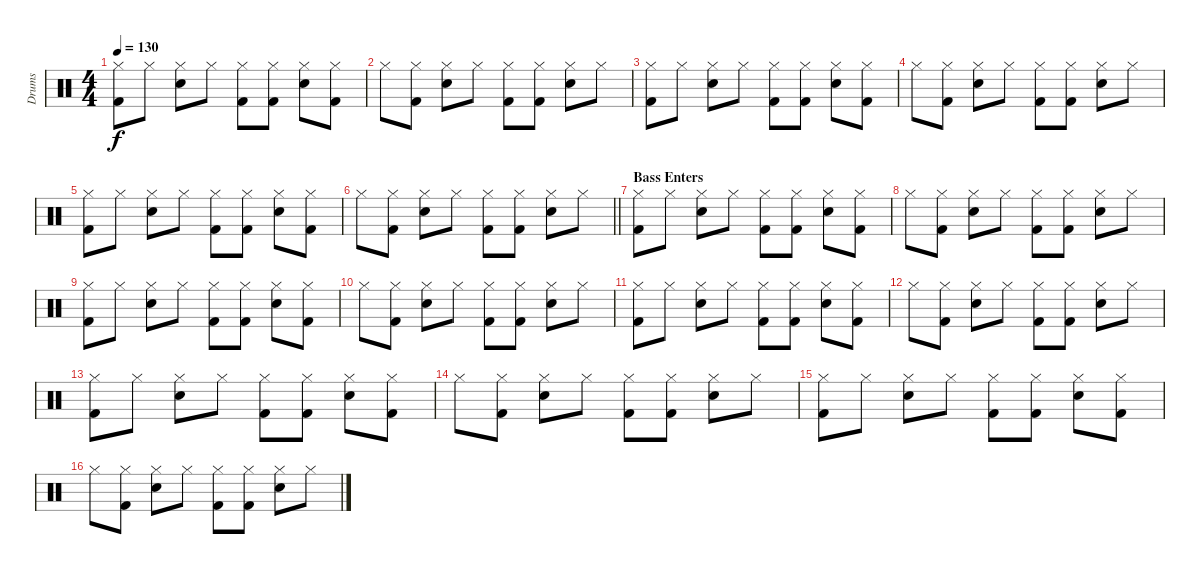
\track ("Drums" "Drums") {instrument percussion}
\staff {score}
\articulation defaults
\ts (4 4)
\tempo 130
\clef neutral
\ks c
("Hi-Hat (closed)" "Kick (hit) 2").8{dy f} "Hi-Hat (closed)".8 ("Hi-Hat (closed)" "Electric Snare (hit)").8 "Hi-Hat (closed)".8 ("Hi-Hat (closed)" "Kick (hit) 2").8 ("Hi-Hat (closed)" "Kick (hit) 2").8 ("Hi-Hat (closed)" "Electric Snare (hit)").8 ("Hi-Hat (closed)" "Kick (hit) 2").8 |
"Hi-Hat (closed)".8 ("Hi-Hat (closed)" "Kick (hit) 2").8 ("Hi-Hat (closed)" "Electric Snare (hit)").8 "Hi-Hat (closed)".8 ("Hi-Hat (closed)" "Kick (hit) 2").8 ("Hi-Hat (closed)" "Kick (hit) 2").8 ("Hi-Hat (closed)" "Electric Snare (hit)").8 "Hi-Hat (closed)".8 |
("Hi-Hat (closed)" "Kick (hit) 2").8 "Hi-Hat (closed)".8 ("Hi-Hat (closed)" "Electric Snare (hit)").8 "Hi-Hat (closed)".8 ("Hi-Hat (closed)" "Kick (hit) 2").8 ("Hi-Hat (closed)" "Kick (hit) 2").8 ("Hi-Hat (closed)" "Electric Snare (hit)").8 ("Hi-Hat (closed)" "Kick (hit) 2").8 |
"Hi-Hat (closed)".8 ("Hi-Hat (closed)" "Kick (hit) 2").8 ("Hi-Hat (closed)" "Electric Snare (hit)").8 "Hi-Hat (closed)".8 ("Hi-Hat (closed)" "Kick (hit) 2").8 ("Hi-Hat (closed)" "Kick (hit) 2").8 ("Hi-Hat (closed)" "Electric Snare (hit)").8 "Hi-Hat (closed)".8 |
("Hi-Hat (closed)" "Kick (hit) 2").8 "Hi-Hat (closed)".8 ("Hi-Hat (closed)" "Electric Snare (hit)").8 "Hi-Hat (closed)".8 ("Hi-Hat (closed)" "Kick (hit) 2").8 ("Hi-Hat (closed)" "Kick (hit) 2").8 ("Hi-Hat (closed)" "Electric Snare (hit)").8 ("Hi-Hat (closed)" "Kick (hit) 2").8 |
\barLineRight lightlight "Hi-Hat (closed)".8
("Hi-Hat (closed)" "Kick (hit) 2").8 ("Hi-Hat (closed)" "Electric Snare (hit)").8 "Hi-Hat (closed)".8 ("Hi-Hat (closed)" "Kick (hit) 2").8 ("Hi-Hat (closed)" "Kick (hit) 2").8 ("Hi-Hat (closed)" "Electric Snare (hit)").8 "Hi-Hat (closed)".8 |
\section ("" "Bass Enters")
("Hi-Hat (closed)" "Kick (hit) 2").8 "Hi-Hat (closed)".8 ("Hi-Hat (closed)" "Electric Snare (hit)").8 "Hi-Hat (closed)".8 ("Hi-Hat (closed)" "Kick (hit) 2").8 ("Hi-Hat (closed)" "Kick (hit) 2").8 ("Hi-Hat (closed)" "Electric Snare (hit)").8 ("Hi-Hat (closed)" "Kick (hit) 2").8 |
"Hi-Hat (closed)".8 ("Hi-Hat (closed)" "Kick (hit) 2").8 ("Hi-Hat (closed)" "Electric Snare (hit)").8 "Hi-Hat (closed)".8 ("Hi-Hat (closed)" "Kick (hit) 2").8 ("Hi-Hat (closed)" "Kick (hit) 2").8 ("Hi-Hat (closed)" "Electric Snare (hit)").8 "Hi-Hat (closed)".8 |
("Hi-Hat (closed)" "Kick (hit) 2").8 "Hi-Hat (closed)".8 ("Hi-Hat (closed)" "Electric Snare (hit)").8 "Hi-Hat (closed)".8 ("Hi-Hat (closed)" "Kick (hit) 2").8 ("Hi-Hat (closed)" "Kick (hit) 2").8 ("Hi-Hat (closed)" "Electric Snare (hit)").8 ("Hi-Hat (closed)" "Kick (hit) 2").8 |
"Hi-Hat (closed)".8 ("Hi-Hat (closed)" "Kick (hit) 2").8 ("Hi-Hat (closed)" "Electric Snare (hit)").8 "Hi-Hat (closed)".8 ("Hi-Hat (closed)" "Kick (hit) 2").8 ("Hi-Hat (closed)" "Kick (hit) 2").8 ("Hi-Hat (closed)" "Electric Snare (hit)").8 "Hi-Hat (closed)".8 |
("Hi-Hat (closed)" "Kick (hit) 2").8 "Hi-Hat (closed)".8 ("Hi-Hat (closed)" "Electric Snare (hit)").8 "Hi-Hat (closed)".8 ("Hi-Hat (closed)" "Kick (hit) 2").8 ("Hi-Hat (closed)" "Kick (hit) 2").8 ("Hi-Hat (closed)" "Electric Snare (hit)").8 ("Hi-Hat (closed)" "Kick (hit) 2").8 |
"Hi-Hat (closed)".8 ("Hi-Hat (closed)" "Kick (hit) 2").8 ("Hi-Hat (closed)" "Electric Snare (hit)").8 "Hi-Hat (closed)".8 ("Hi-Hat (closed)" "Kick (hit) 2").8 ("Hi-Hat (closed)" "Kick (hit) 2").8 ("Hi-Hat (closed)" "Electric Snare (hit)").8 "Hi-Hat (closed)".8 |
("Hi-Hat (closed)" "Kick (hit) 2").8 "Hi-Hat (closed)".8 ("Hi-Hat (closed)" "Electric Snare (hit)").8 "Hi-Hat (closed)".8 ("Hi-Hat (closed)" "Kick (hit) 2").8 ("Hi-Hat (closed)" "Kick (hit) 2").8 ("Hi-Hat (closed)" "Electric Snare (hit)").8 ("Hi-Hat (closed)" "Kick (hit) 2").8 |
"Hi-Hat (closed)".8 ("Hi-Hat (closed)" "Kick (hit) 2").8 ("Hi-Hat (closed)" "Electric Snare (hit)").8 "Hi-Hat (closed)".8 ("Hi-Hat (closed)" "Kick (hit) 2").8 ("Hi-Hat (closed)" "Kick (hit) 2").8 ("Hi-Hat (closed)" "Electric Snare (hit)").8 "Hi-Hat (closed)".8 |
("Hi-Hat (closed)" "Kick (hit) 2").8 "Hi-Hat (closed)".8 ("Hi-Hat (closed)" "Electric Snare (hit)").8 "Hi-Hat (closed)".8 ("Hi-Hat (closed)" "Kick (hit) 2").8 ("Hi-Hat (closed)" "Kick (hit) 2").8 ("Hi-Hat (closed)" "Electric Snare (hit)").8 ("Hi-Hat (closed)" "Kick (hit) 2").8 |
"Hi-Hat (closed)".8 ("Hi-Hat (closed)" "Kick (hit) 2").8 ("Hi-Hat (closed)" "Electric Snare (hit)").8 "Hi-Hat (closed)".8 ("Hi-Hat (closed)" "Kick (hit) 2").8 ("Hi-Hat (closed)" "Kick (hit) 2").8 ("Hi-Hat (closed)" "Electric Snare (hit)").8 "Hi-Hat (closed)".8
